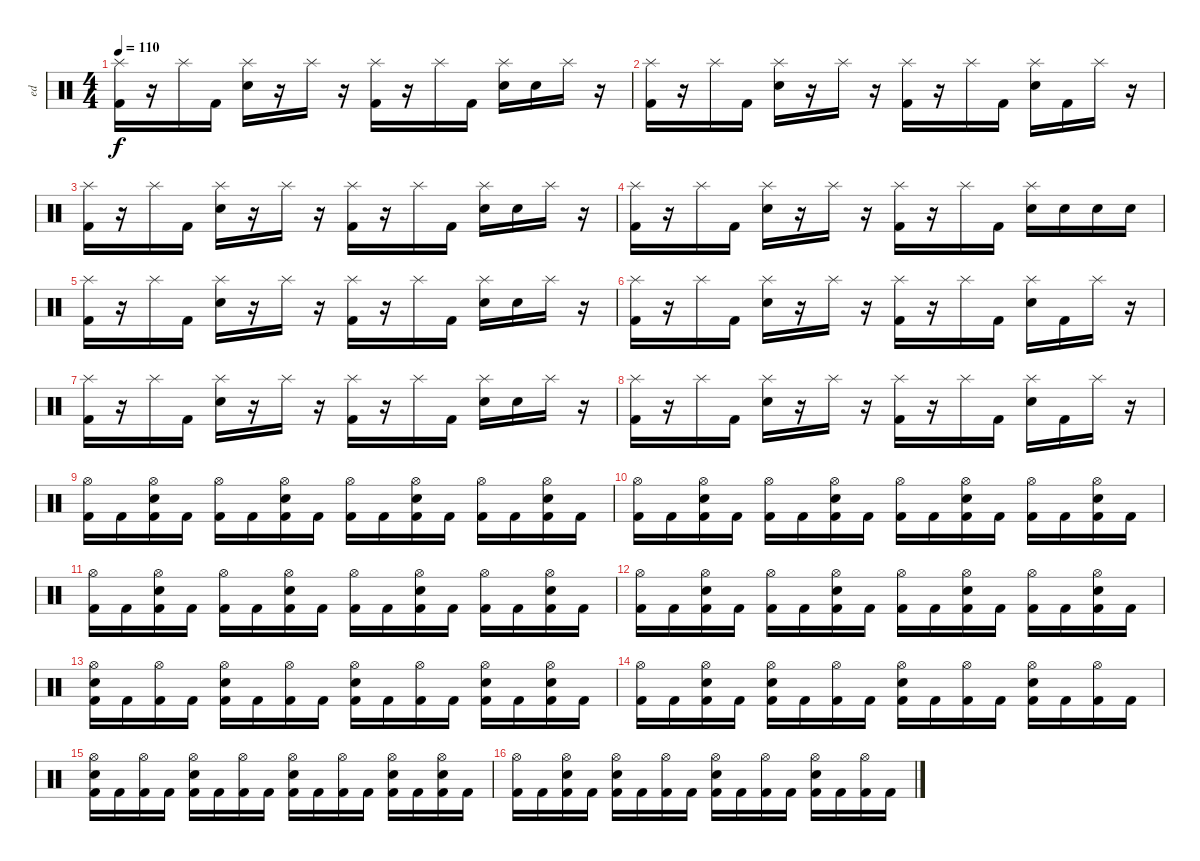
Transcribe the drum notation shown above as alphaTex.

\track ("ed" "ed") {instrument percussion}
\staff {score}
\articulation defaults
\ts (4 4)
\tempo 110
\clef neutral
\ks c
("Splash (hit)" "Kick (hit) 2").16{dy f} r.16 "Splash (hit)".16 "Kick (hit) 2".16 ("Splash (hit)" "Electric Snare (hit)").16 r.16 "Splash (hit)".16 r.16 ("Splash (hit)" "Kick (hit) 2").16 r.16 "Splash (hit)".16 "Kick (hit) 2".16 ("Splash (hit)" "Electric Snare (hit)").16 "Electric Snare (hit)".16 "Splash (hit)".16 r.16 |
("Splash (hit)" "Kick (hit) 2").16 r.16 "Splash (hit)".16 "Kick (hit) 2".16 ("Splash (hit)" "Electric Snare (hit)").16 r.16 "Splash (hit)".16 r.16 ("Splash (hit)" "Kick (hit) 2").16 r.16 "Splash (hit)".16 "Kick (hit) 2".16 ("Splash (hit)" "Electric Snare (hit)").16 "Kick (hit) 2".16 "Splash (hit)".16 r.16 |
("Splash (hit)" "Kick (hit) 2").16 r.16 "Splash (hit)".16 "Kick (hit) 2".16 ("Splash (hit)" "Electric Snare (hit)").16 r.16 "Splash (hit)".16 r.16 ("Splash (hit)" "Kick (hit) 2").16 r.16 "Splash (hit)".16 "Kick (hit) 2".16 ("Splash (hit)" "Electric Snare (hit)").16 "Electric Snare (hit)".16 "Splash (hit)".16 r.16 |
("Splash (hit)" "Kick (hit) 2").16 r.16 "Splash (hit)".16 "Kick (hit) 2".16 ("Splash (hit)" "Electric Snare (hit)").16 r.16 "Splash (hit)".16 r.16 ("Splash (hit)" "Kick (hit) 2").16 r.16 "Splash (hit)".16 "Kick (hit) 2".16 ("Splash (hit)" "Electric Snare (hit)").16 "Electric Snare (hit)".16 "Electric Snare (hit)".16 "Electric Snare (hit)".16 |
("Splash (hit)" "Kick (hit) 2").16 r.16 "Splash (hit)".16 "Kick (hit) 2".16 ("Splash (hit)" "Electric Snare (hit)").16 r.16 "Splash (hit)".16 r.16 ("Splash (hit)" "Kick (hit) 2").16 r.16 "Splash (hit)".16 "Kick (hit) 2".16 ("Splash (hit)" "Electric Snare (hit)").16 "Electric Snare (hit)".16 "Splash (hit)".16 r.16 |
("Splash (hit)" "Kick (hit) 2").16 r.16 "Splash (hit)".16 "Kick (hit) 2".16 ("Splash (hit)" "Electric Snare (hit)").16 r.16 "Splash (hit)".16 r.16 ("Splash (hit)" "Kick (hit) 2").16 r.16 "Splash (hit)".16 "Kick (hit) 2".16 ("Splash (hit)" "Electric Snare (hit)").16 "Kick (hit) 2".16 "Splash (hit)".16 r.16 |
("Splash (hit)" "Kick (hit) 2").16 r.16 "Splash (hit)".16 "Kick (hit) 2".16 ("Splash (hit)" "Electric Snare (hit)").16 r.16 "Splash (hit)".16 r.16 ("Splash (hit)" "Kick (hit) 2").16 r.16 "Splash (hit)".16 "Kick (hit) 2".16 ("Splash (hit)" "Electric Snare (hit)").16 "Electric Snare (hit)".16 "Splash (hit)".16 r.16 |
("Splash (hit)" "Kick (hit) 2").16 r.16 "Splash (hit)".16 "Kick (hit) 2".16 ("Splash (hit)" "Electric Snare (hit)").16 r.16 "Splash (hit)".16 r.16 ("Splash (hit)" "Kick (hit) 2").16 r.16 "Splash (hit)".16 "Kick (hit) 2".16 ("Splash (hit)" "Electric Snare (hit)").16 "Kick (hit) 2".16 "Splash (hit)".16 r.16 |
("Hi-Hat (open)" "Kick (hit) 2").16 "Kick (hit) 2".16 ("Hi-Hat (open)" "Electric Snare (hit)" "Kick (hit) 2").16 "Kick (hit) 2".16 ("Hi-Hat (open)" "Kick (hit) 2").16 "Kick (hit) 2".16 ("Hi-Hat (open)" "Electric Snare (hit)" "Kick (hit) 2").16 "Kick (hit) 2".16 ("Hi-Hat (open)" "Kick (hit) 2").16 "Kick (hit) 2".16 ("Hi-Hat (open)" "Electric Snare (hit)" "Kick (hit) 2").16 "Kick (hit) 2".16 ("Hi-Hat (open)" "Kick (hit) 2").16 "Kick (hit) 2".16 ("Hi-Hat (open)" "Electric Snare (hit)" "Kick (hit) 2").16 "Kick (hit) 2".16 |
("Hi-Hat (open)" "Kick (hit) 2").16 "Kick (hit) 2".16 ("Hi-Hat (open)" "Electric Snare (hit)" "Kick (hit) 2").16 "Kick (hit) 2".16 ("Hi-Hat (open)" "Kick (hit) 2").16 "Kick (hit) 2".16 ("Hi-Hat (open)" "Electric Snare (hit)" "Kick (hit) 2").16 "Kick (hit) 2".16 ("Hi-Hat (open)" "Kick (hit) 2").16 "Kick (hit) 2".16 ("Hi-Hat (open)" "Electric Snare (hit)" "Kick (hit) 2").16 "Kick (hit) 2".16 ("Hi-Hat (open)" "Kick (hit) 2").16 "Kick (hit) 2".16 ("Hi-Hat (open)" "Electric Snare (hit)" "Kick (hit) 2").16 "Kick (hit) 2".16 |
("Hi-Hat (open)" "Kick (hit) 2").16 "Kick (hit) 2".16 ("Hi-Hat (open)" "Electric Snare (hit)" "Kick (hit) 2").16 "Kick (hit) 2".16 ("Hi-Hat (open)" "Kick (hit) 2").16 "Kick (hit) 2".16 ("Hi-Hat (open)" "Electric Snare (hit)" "Kick (hit) 2").16 "Kick (hit) 2".16 ("Hi-Hat (open)" "Kick (hit) 2").16 "Kick (hit) 2".16 ("Hi-Hat (open)" "Electric Snare (hit)" "Kick (hit) 2").16 "Kick (hit) 2".16 ("Hi-Hat (open)" "Kick (hit) 2").16 "Kick (hit) 2".16 ("Hi-Hat (open)" "Electric Snare (hit)" "Kick (hit) 2").16 "Kick (hit) 2".16 |
("Hi-Hat (open)" "Kick (hit) 2").16 "Kick (hit) 2".16 ("Hi-Hat (open)" "Electric Snare (hit)" "Kick (hit) 2").16 "Kick (hit) 2".16 ("Hi-Hat (open)" "Kick (hit) 2").16 "Kick (hit) 2".16 ("Hi-Hat (open)" "Electric Snare (hit)" "Kick (hit) 2").16 "Kick (hit) 2".16 ("Hi-Hat (open)" "Kick (hit) 2").16 "Kick (hit) 2".16 ("Hi-Hat (open)" "Electric Snare (hit)" "Kick (hit) 2").16 "Kick (hit) 2".16 ("Hi-Hat (open)" "Kick (hit) 2").16 "Kick (hit) 2".16 ("Hi-Hat (open)" "Electric Snare (hit)" "Kick (hit) 2").16 "Kick (hit) 2".16 |
("Hi-Hat (open)" "Electric Snare (hit)" "Kick (hit) 2").16 "Kick (hit) 2".16 ("Hi-Hat (open)" "Kick (hit) 2").16 "Kick (hit) 2".16 ("Hi-Hat (open)" "Electric Snare (hit)" "Kick (hit) 2").16 "Kick (hit) 2".16 ("Hi-Hat (open)" "Kick (hit) 2").16 "Kick (hit) 2".16 ("Hi-Hat (open)" "Electric Snare (hit)" "Kick (hit) 2").16 "Kick (hit) 2".16 ("Hi-Hat (open)" "Kick (hit) 2").16 "Kick (hit) 2".16 ("Hi-Hat (open)" "Electric Snare (hit)" "Kick (hit) 2").16 "Kick (hit) 2".16 ("Hi-Hat (open)" "Electric Snare (hit)" "Kick (hit) 2").16 "Kick (hit) 2".16 |
("Hi-Hat (open)" "Kick (hit) 2").16 "Kick (hit) 2".16 ("Hi-Hat (open)" "Electric Snare (hit)" "Kick (hit) 2").16 "Kick (hit) 2".16 ("Hi-Hat (open)" "Electric Snare (hit)" "Kick (hit) 2").16 "Kick (hit) 2".16 ("Hi-Hat (open)" "Kick (hit) 2").16 "Kick (hit) 2".16 ("Hi-Hat (open)" "Electric Snare (hit)" "Kick (hit) 2").16 "Kick (hit) 2".16 ("Hi-Hat (open)" "Kick (hit) 2").16 "Kick (hit) 2".16 ("Hi-Hat (open)" "Electric Snare (hit)" "Kick (hit) 2").16 "Kick (hit) 2".16 ("Hi-Hat (open)" "Kick (hit) 2").16 "Kick (hit) 2".16 |
("Hi-Hat (open)" "Electric Snare (hit)" "Kick (hit) 2").16 "Kick (hit) 2".16 ("Hi-Hat (open)" "Kick (hit) 2").16 "Kick (hit) 2".16 ("Hi-Hat (open)" "Electric Snare (hit)" "Kick (hit) 2").16 "Kick (hit) 2".16 ("Hi-Hat (open)" "Kick (hit) 2").16 "Kick (hit) 2".16 ("Hi-Hat (open)" "Electric Snare (hit)" "Kick (hit) 2").16 "Kick (hit) 2".16 ("Hi-Hat (open)" "Kick (hit) 2").16 "Kick (hit) 2".16 ("Hi-Hat (open)" "Electric Snare (hit)" "Kick (hit) 2").16 "Kick (hit) 2".16 ("Hi-Hat (open)" "Electric Snare (hit)" "Kick (hit) 2").16 "Kick (hit) 2".16 |
("Hi-Hat (open)" "Kick (hit) 2").16 "Kick (hit) 2".16 ("Hi-Hat (open)" "Electric Snare (hit)" "Kick (hit) 2").16 "Kick (hit) 2".16 ("Hi-Hat (open)" "Electric Snare (hit)" "Kick (hit) 2").16 "Kick (hit) 2".16 ("Hi-Hat (open)" "Kick (hit) 2").16 "Kick (hit) 2".16 ("Hi-Hat (open)" "Electric Snare (hit)" "Kick (hit) 2").16 "Kick (hit) 2".16 ("Hi-Hat (open)" "Kick (hit) 2").16 "Kick (hit) 2".16 ("Hi-Hat (open)" "Electric Snare (hit)" "Kick (hit) 2").16 "Kick (hit) 2".16 ("Hi-Hat (open)" "Kick (hit) 2").16 "Kick (hit) 2".16
